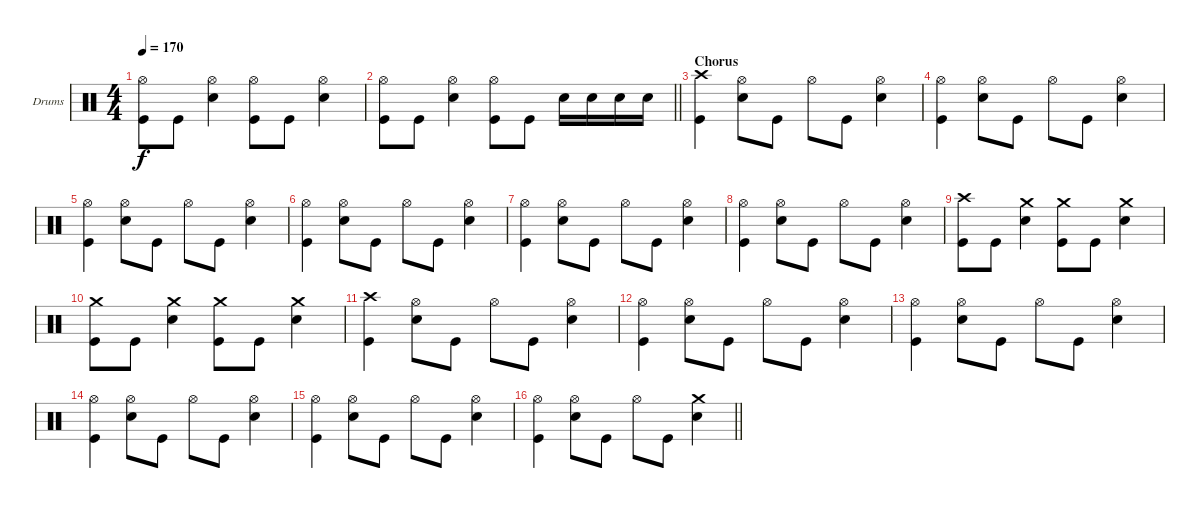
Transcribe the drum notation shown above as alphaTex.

\bracketExtendMode groupsimilarinstruments
\firstSystemTrackNameOrientation horizontal
\otherSystemsTrackNameOrientation horizontal
\track ("Drumkit" "Drums") {instrument percussion}
\staff {score}
\articulation defaults
\ts (4 4)
\tempo 170
\clef neutral
\ks c
("Hi-Hat (open)" "Kick (hit)").8{dy f} "Kick (hit)".8 ("Hi-Hat (open)" "Snare (hit) 2").4 ("Hi-Hat (open)" "Kick (hit)").8 "Kick (hit)".8 ("Hi-Hat (open)" "Snare (hit) 2").4 |
\barLineRight lightlight
("Hi-Hat (open)" "Kick (hit)").8 "Kick (hit)".8 ("Hi-Hat (open)" "Snare (hit) 2").4 ("Hi-Hat (open)" "Kick (hit)").8 "Kick (hit)".8 "Snare (hit) 2".16 "Snare (hit) 2".16 "Snare (hit) 2".16 "Snare (hit) 2".16 |
\section ("" "Chorus")
("Crash high (hit)" "Kick (hit)").4 ("Hi-Hat (open)" "Snare (hit) 2").8 "Kick (hit)".8 "Hi-Hat (open)".8 "Kick (hit)".8 ("Hi-Hat (open)" "Snare (hit) 2").4 |
("Hi-Hat (open)" "Kick (hit)").4 ("Hi-Hat (open)" "Snare (hit) 2").8 "Kick (hit)".8 "Hi-Hat (open)".8 "Kick (hit)".8 ("Hi-Hat (open)" "Snare (hit) 2").4 |
("Hi-Hat (open)" "Kick (hit)").4 ("Hi-Hat (open)" "Snare (hit) 2").8 "Kick (hit)".8 "Hi-Hat (open)".8 "Kick (hit)".8 ("Hi-Hat (open)" "Snare (hit) 2").4 |
("Hi-Hat (open)" "Kick (hit)").4 ("Hi-Hat (open)" "Snare (hit) 2").8 "Kick (hit)".8 "Hi-Hat (open)".8 "Kick (hit)".8 ("Hi-Hat (open)" "Snare (hit) 2").4 |
("Hi-Hat (open)" "Kick (hit)").4 ("Hi-Hat (open)" "Snare (hit) 2").8 "Kick (hit)".8 "Hi-Hat (open)".8 "Kick (hit)".8 ("Hi-Hat (open)" "Snare (hit) 2").4 |
("Hi-Hat (open)" "Kick (hit)").4 ("Hi-Hat (open)" "Snare (hit) 2").8 "Kick (hit)".8 "Hi-Hat (open)".8 "Kick (hit)".8 ("Hi-Hat (open)" "Snare (hit) 2").4 |
("Crash high (hit)" "Kick (hit)").8 "Kick (hit)".8 ("Crash medium (hit)" "Snare (hit) 2").4 ("Crash medium (hit)" "Kick (hit)").8 "Kick (hit)".8 ("Crash medium (hit)" "Snare (hit) 2").4 |
("Crash medium (hit)" "Kick (hit)").8 "Kick (hit)".8 ("Crash medium (hit)" "Snare (hit) 2").4 ("Crash medium (hit)" "Kick (hit)").8 "Kick (hit)".8 ("Crash medium (hit)" "Snare (hit) 2").4 |
("Crash high (hit)" "Kick (hit)").4 ("Hi-Hat (open)" "Snare (hit) 2").8 "Kick (hit)".8 "Hi-Hat (open)".8 "Kick (hit)".8 ("Hi-Hat (open)" "Snare (hit) 2").4 |
("Hi-Hat (open)" "Kick (hit)").4 ("Hi-Hat (open)" "Snare (hit) 2").8 "Kick (hit)".8 "Hi-Hat (open)".8 "Kick (hit)".8 ("Hi-Hat (open)" "Snare (hit) 2").4 |
("Hi-Hat (open)" "Kick (hit)").4 ("Hi-Hat (open)" "Snare (hit) 2").8 "Kick (hit)".8 "Hi-Hat (open)".8 "Kick (hit)".8 ("Hi-Hat (open)" "Snare (hit) 2").4 |
("Hi-Hat (open)" "Kick (hit)").4 ("Hi-Hat (open)" "Snare (hit) 2").8 "Kick (hit)".8 "Hi-Hat (open)".8 "Kick (hit)".8 ("Hi-Hat (open)" "Snare (hit) 2").4 |
("Hi-Hat (open)" "Kick (hit)").4 ("Hi-Hat (open)" "Snare (hit) 2").8 "Kick (hit)".8 "Hi-Hat (open)".8 "Kick (hit)".8 ("Hi-Hat (open)" "Snare (hit) 2").4 |
\barLineRight lightlight
("Hi-Hat (open)" "Kick (hit)").4 ("Hi-Hat (open)" "Snare (hit) 2").8 "Kick (hit)".8 "Hi-Hat (open)".8 "Kick (hit)".8 ("Crash medium (hit)" "Snare (hit) 2").4
